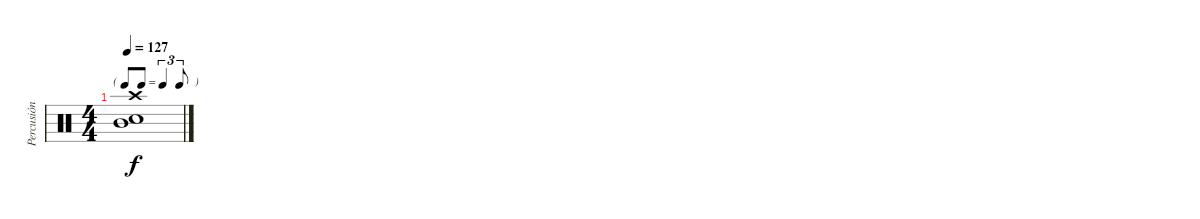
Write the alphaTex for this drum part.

\track ("Percusión" "Percusión") {instrument percussion}
\staff {score}
\articulation defaults
\ts (4 4)
\tf triplet8th
\tempo 127
\clef neutral
\ks c
("Snare (hit) 2" "Crash high (hit)" "Mid Tom (hit)").1{dy f}
